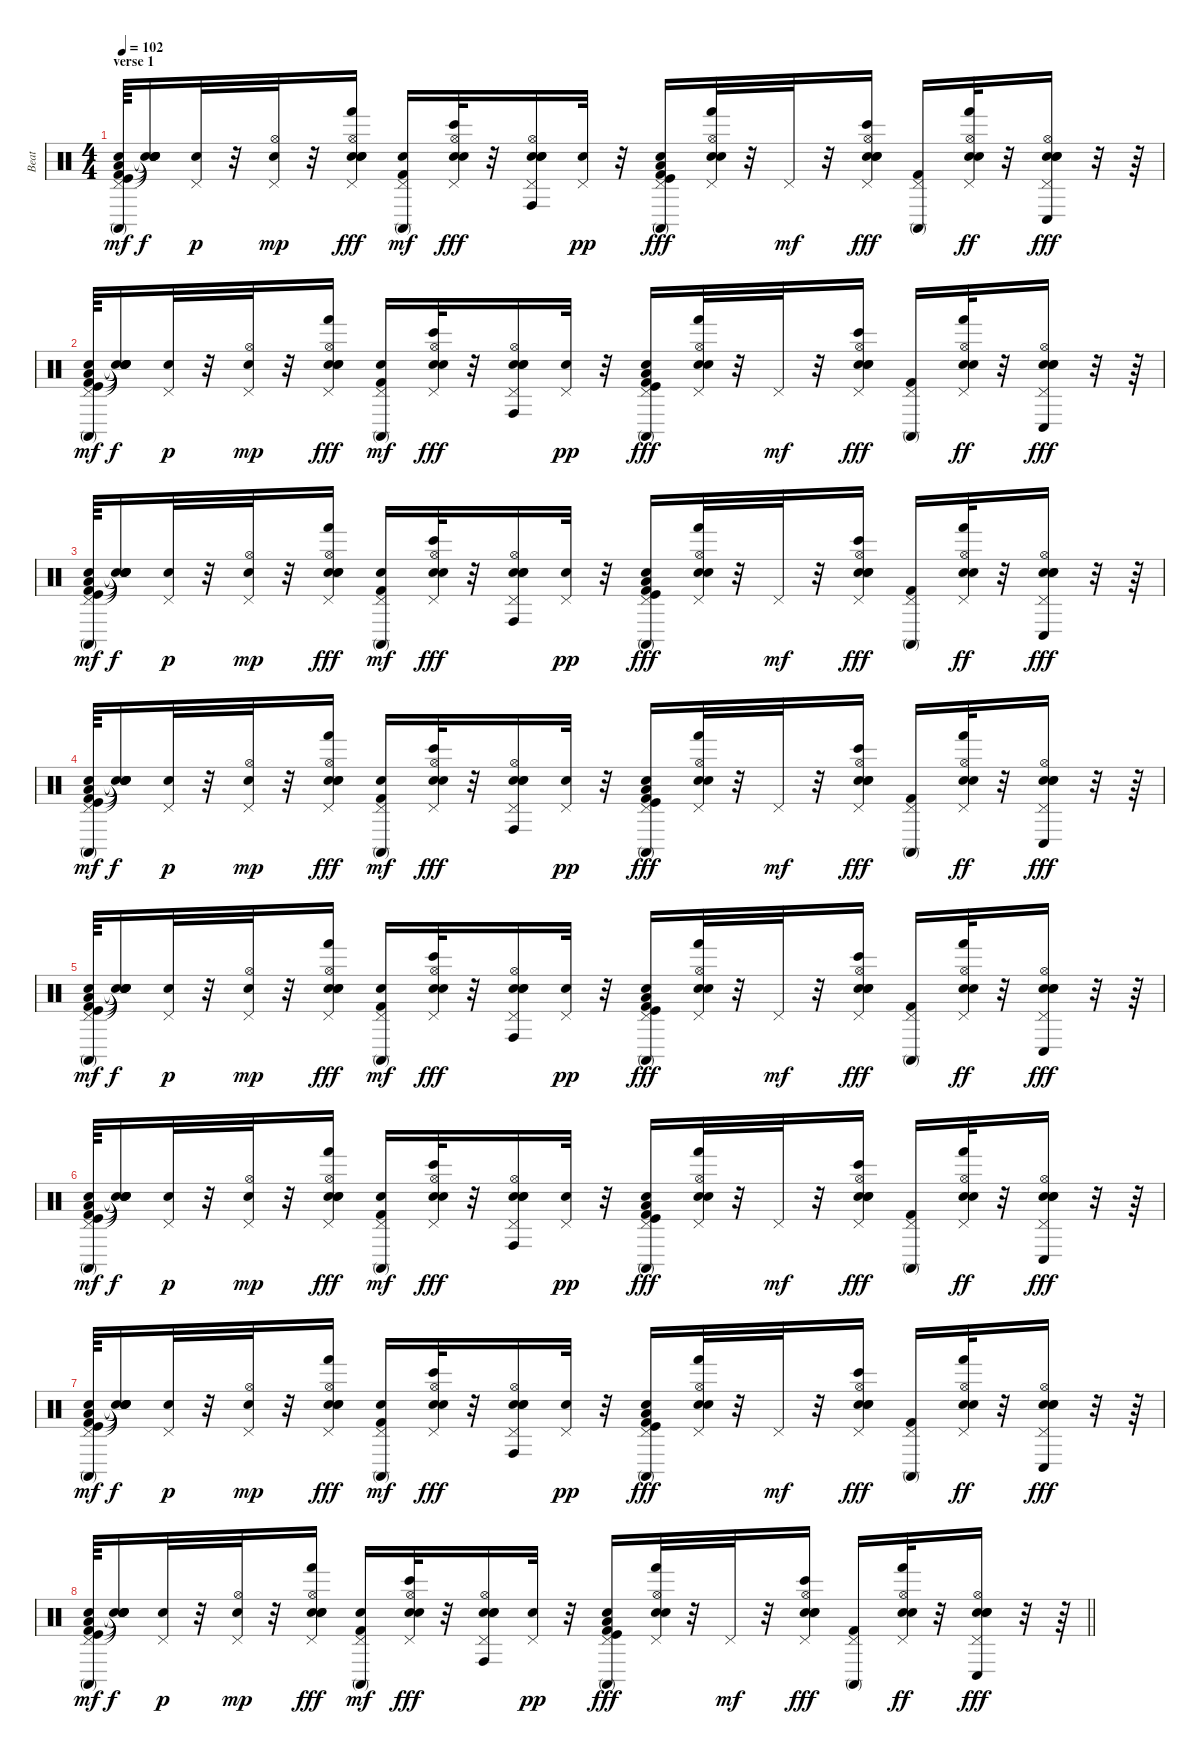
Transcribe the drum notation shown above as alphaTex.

\track ("Beat" "Beat") {instrument percussion}
\staff {score}
\articulation defaults
\ts (4 4)
\section ("" "verse 1")
\tempo 102
\clef neutral
\ks c
("Low Tom (hit)" "Kick (hit)" "Kick (hit) 2" "Pedal Hi-Hat (hit)" "Hand Clap (hit)" "Conga high (mute)").64{dy mf} ("Snare (hit)"{t} "Snare (hit)"{t} "Snare (hit)"{t} "Snare (hit)"{t} "Snare (hit)"{t}).16{dy f} ("Pedal Hi-Hat (hit)" "Hand Clap (hit)").32{dy p} r.32 ("Pedal Hi-Hat (hit)" "Hi-Hat (open)" "Metronome (bell)").32{dy mp} r.32 ("Electric Snare (hit)" "Pedal Hi-Hat (hit)" "Hand Clap (hit)" "Hi-Hat (open)" "Metronome (bell)" "Hand (hit)").16{dy fff} ("Kick (hit) 2" "Pedal Hi-Hat (hit)" "Hand Clap (hit)" "Conga high (mute)").16{dy mf} ("Pedal Hi-Hat (hit)" "Hand Clap (hit)" "Hi-Hat (open)" "Metronome (bell)" "Bongo High (hit)").32{dy fff} r.32 ("Electric Snare (hit)" "Pedal Hi-Hat (hit)" "Hand Clap (hit)" "Hi-Hat (open)" "Metronome (bell)" "Conga high (hit)").16 ("Pedal Hi-Hat (hit)" "Hand Clap (hit)").32{dy pp} r.32 ("Low Tom (hit)" "Kick (hit)" "Kick (hit) 2" "Pedal Hi-Hat (hit)" "Hand Clap (hit)" "Conga high (mute)").16{dy fff} ("Pedal Hi-Hat (hit)" "Hand Clap (hit)" "Hi-Hat (open)" "Metronome (bell)" "Hand (hit)").32 r.32 "Pedal Hi-Hat (hit)".32{dy mf} r.32 ("Electric Snare (hit)" "Pedal Hi-Hat (hit)" "Hand Clap (hit)" "Hi-Hat (open)" "Metronome (bell)" "Bongo High (hit)").16{dy fff} ("Kick (hit) 2" "Pedal Hi-Hat (hit)" "Conga high (mute)").16 ("Pedal Hi-Hat (hit)" "Hand Clap (hit)" "Hi-Hat (open)" "Metronome (bell)" "Hand (hit)").32{dy ff} r.32 ("Electric Snare (hit)" "Pedal Hi-Hat (hit)" "Hand Clap (hit)" "Hi-Hat (open)" "Metronome (bell)" "Conga low (hit)").16{dy fff} r.32 r.64 |
("Low Tom (hit)" "Kick (hit)" "Kick (hit) 2" "Pedal Hi-Hat (hit)" "Hand Clap (hit)" "Conga high (mute)").64{dy mf} ("Snare (hit)"{t} "Snare (hit)"{t} "Snare (hit)"{t} "Snare (hit)"{t} "Snare (hit)"{t}).16{dy f} ("Pedal Hi-Hat (hit)" "Hand Clap (hit)").32{dy p} r.32 ("Pedal Hi-Hat (hit)" "Hi-Hat (open)" "Metronome (bell)").32{dy mp} r.32 ("Electric Snare (hit)" "Pedal Hi-Hat (hit)" "Hand Clap (hit)" "Hi-Hat (open)" "Metronome (bell)" "Hand (hit)").16{dy fff} ("Kick (hit) 2" "Pedal Hi-Hat (hit)" "Hand Clap (hit)" "Conga high (mute)").16{dy mf} ("Pedal Hi-Hat (hit)" "Hand Clap (hit)" "Hi-Hat (open)" "Metronome (bell)" "Bongo High (hit)").32{dy fff} r.32 ("Electric Snare (hit)" "Pedal Hi-Hat (hit)" "Hand Clap (hit)" "Hi-Hat (open)" "Metronome (bell)" "Conga high (hit)").16 ("Pedal Hi-Hat (hit)" "Hand Clap (hit)").32{dy pp} r.32 ("Low Tom (hit)" "Kick (hit)" "Kick (hit) 2" "Pedal Hi-Hat (hit)" "Hand Clap (hit)" "Conga high (mute)").16{dy fff} ("Pedal Hi-Hat (hit)" "Hand Clap (hit)" "Hi-Hat (open)" "Metronome (bell)" "Hand (hit)").32 r.32 "Pedal Hi-Hat (hit)".32{dy mf} r.32 ("Electric Snare (hit)" "Pedal Hi-Hat (hit)" "Hand Clap (hit)" "Hi-Hat (open)" "Metronome (bell)" "Bongo High (hit)").16{dy fff} ("Kick (hit) 2" "Pedal Hi-Hat (hit)" "Conga high (mute)").16 ("Pedal Hi-Hat (hit)" "Hand Clap (hit)" "Hi-Hat (open)" "Metronome (bell)" "Hand (hit)").32{dy ff} r.32 ("Electric Snare (hit)" "Pedal Hi-Hat (hit)" "Hand Clap (hit)" "Hi-Hat (open)" "Metronome (bell)" "Conga low (hit)").16{dy fff} r.32 r.64 |
("Low Tom (hit)" "Kick (hit)" "Kick (hit) 2" "Pedal Hi-Hat (hit)" "Hand Clap (hit)" "Conga high (mute)").64{dy mf} ("Snare (hit)"{t} "Snare (hit)"{t} "Snare (hit)"{t} "Snare (hit)"{t} "Snare (hit)"{t}).16{dy f} ("Pedal Hi-Hat (hit)" "Hand Clap (hit)").32{dy p} r.32 ("Pedal Hi-Hat (hit)" "Hi-Hat (open)" "Metronome (bell)").32{dy mp} r.32 ("Electric Snare (hit)" "Pedal Hi-Hat (hit)" "Hand Clap (hit)" "Hi-Hat (open)" "Metronome (bell)" "Hand (hit)").16{dy fff} ("Kick (hit) 2" "Pedal Hi-Hat (hit)" "Hand Clap (hit)" "Conga high (mute)").16{dy mf} ("Pedal Hi-Hat (hit)" "Hand Clap (hit)" "Hi-Hat (open)" "Metronome (bell)" "Bongo High (hit)").32{dy fff} r.32 ("Electric Snare (hit)" "Pedal Hi-Hat (hit)" "Hand Clap (hit)" "Hi-Hat (open)" "Metronome (bell)" "Conga high (hit)").16 ("Pedal Hi-Hat (hit)" "Hand Clap (hit)").32{dy pp} r.32 ("Low Tom (hit)" "Kick (hit)" "Kick (hit) 2" "Pedal Hi-Hat (hit)" "Hand Clap (hit)" "Conga high (mute)").16{dy fff} ("Pedal Hi-Hat (hit)" "Hand Clap (hit)" "Hi-Hat (open)" "Metronome (bell)" "Hand (hit)").32 r.32 "Pedal Hi-Hat (hit)".32{dy mf} r.32 ("Electric Snare (hit)" "Pedal Hi-Hat (hit)" "Hand Clap (hit)" "Hi-Hat (open)" "Metronome (bell)" "Bongo High (hit)").16{dy fff} ("Kick (hit) 2" "Pedal Hi-Hat (hit)" "Conga high (mute)").16 ("Pedal Hi-Hat (hit)" "Hand Clap (hit)" "Hi-Hat (open)" "Metronome (bell)" "Hand (hit)").32{dy ff} r.32 ("Electric Snare (hit)" "Pedal Hi-Hat (hit)" "Hand Clap (hit)" "Hi-Hat (open)" "Metronome (bell)" "Conga low (hit)").16{dy fff} r.32 r.64 |
("Low Tom (hit)" "Kick (hit)" "Kick (hit) 2" "Pedal Hi-Hat (hit)" "Hand Clap (hit)" "Conga high (mute)").64{dy mf} ("Snare (hit)"{t} "Snare (hit)"{t} "Snare (hit)"{t} "Snare (hit)"{t} "Snare (hit)"{t}).16{dy f} ("Pedal Hi-Hat (hit)" "Hand Clap (hit)").32{dy p} r.32 ("Pedal Hi-Hat (hit)" "Hi-Hat (open)" "Metronome (bell)").32{dy mp} r.32 ("Electric Snare (hit)" "Pedal Hi-Hat (hit)" "Hand Clap (hit)" "Hi-Hat (open)" "Metronome (bell)" "Hand (hit)").16{dy fff} ("Kick (hit) 2" "Pedal Hi-Hat (hit)" "Hand Clap (hit)" "Conga high (mute)").16{dy mf} ("Pedal Hi-Hat (hit)" "Hand Clap (hit)" "Hi-Hat (open)" "Metronome (bell)" "Bongo High (hit)").32{dy fff} r.32 ("Electric Snare (hit)" "Pedal Hi-Hat (hit)" "Hand Clap (hit)" "Hi-Hat (open)" "Metronome (bell)" "Conga high (hit)").16 ("Pedal Hi-Hat (hit)" "Hand Clap (hit)").32{dy pp} r.32 ("Low Tom (hit)" "Kick (hit)" "Kick (hit) 2" "Pedal Hi-Hat (hit)" "Hand Clap (hit)" "Conga high (mute)").16{dy fff} ("Pedal Hi-Hat (hit)" "Hand Clap (hit)" "Hi-Hat (open)" "Metronome (bell)" "Hand (hit)").32 r.32 "Pedal Hi-Hat (hit)".32{dy mf} r.32 ("Electric Snare (hit)" "Pedal Hi-Hat (hit)" "Hand Clap (hit)" "Hi-Hat (open)" "Metronome (bell)" "Bongo High (hit)").16{dy fff} ("Kick (hit) 2" "Pedal Hi-Hat (hit)" "Conga high (mute)").16 ("Pedal Hi-Hat (hit)" "Hand Clap (hit)" "Hi-Hat (open)" "Metronome (bell)" "Hand (hit)").32{dy ff} r.32 ("Electric Snare (hit)" "Pedal Hi-Hat (hit)" "Hand Clap (hit)" "Hi-Hat (open)" "Metronome (bell)" "Conga low (hit)").16{dy fff} r.32 r.64 |
("Low Tom (hit)" "Kick (hit)" "Kick (hit) 2" "Pedal Hi-Hat (hit)" "Hand Clap (hit)" "Conga high (mute)").64{dy mf} ("Snare (hit)"{t} "Snare (hit)"{t} "Snare (hit)"{t} "Snare (hit)"{t} "Snare (hit)"{t}).16{dy f} ("Pedal Hi-Hat (hit)" "Hand Clap (hit)").32{dy p} r.32 ("Pedal Hi-Hat (hit)" "Hi-Hat (open)" "Metronome (bell)").32{dy mp} r.32 ("Electric Snare (hit)" "Pedal Hi-Hat (hit)" "Hand Clap (hit)" "Hi-Hat (open)" "Metronome (bell)" "Hand (hit)").16{dy fff} ("Kick (hit) 2" "Pedal Hi-Hat (hit)" "Hand Clap (hit)" "Conga high (mute)").16{dy mf} ("Pedal Hi-Hat (hit)" "Hand Clap (hit)" "Hi-Hat (open)" "Metronome (bell)" "Bongo High (hit)").32{dy fff} r.32 ("Electric Snare (hit)" "Pedal Hi-Hat (hit)" "Hand Clap (hit)" "Hi-Hat (open)" "Metronome (bell)" "Conga high (hit)").16 ("Pedal Hi-Hat (hit)" "Hand Clap (hit)").32{dy pp} r.32 ("Low Tom (hit)" "Kick (hit)" "Kick (hit) 2" "Pedal Hi-Hat (hit)" "Hand Clap (hit)" "Conga high (mute)").16{dy fff} ("Pedal Hi-Hat (hit)" "Hand Clap (hit)" "Hi-Hat (open)" "Metronome (bell)" "Hand (hit)").32 r.32 "Pedal Hi-Hat (hit)".32{dy mf} r.32 ("Electric Snare (hit)" "Pedal Hi-Hat (hit)" "Hand Clap (hit)" "Hi-Hat (open)" "Metronome (bell)" "Bongo High (hit)").16{dy fff} ("Kick (hit) 2" "Pedal Hi-Hat (hit)" "Conga high (mute)").16 ("Pedal Hi-Hat (hit)" "Hand Clap (hit)" "Hi-Hat (open)" "Metronome (bell)" "Hand (hit)").32{dy ff} r.32 ("Electric Snare (hit)" "Pedal Hi-Hat (hit)" "Hand Clap (hit)" "Hi-Hat (open)" "Metronome (bell)" "Conga low (hit)").16{dy fff} r.32 r.64 |
("Low Tom (hit)" "Kick (hit)" "Kick (hit) 2" "Pedal Hi-Hat (hit)" "Hand Clap (hit)" "Conga high (mute)").64{dy mf} ("Snare (hit)"{t} "Snare (hit)"{t} "Snare (hit)"{t} "Snare (hit)"{t} "Snare (hit)"{t}).16{dy f} ("Pedal Hi-Hat (hit)" "Hand Clap (hit)").32{dy p} r.32 ("Pedal Hi-Hat (hit)" "Hi-Hat (open)" "Metronome (bell)").32{dy mp} r.32 ("Electric Snare (hit)" "Pedal Hi-Hat (hit)" "Hand Clap (hit)" "Hi-Hat (open)" "Metronome (bell)" "Hand (hit)").16{dy fff} ("Kick (hit) 2" "Pedal Hi-Hat (hit)" "Hand Clap (hit)" "Conga high (mute)").16{dy mf} ("Pedal Hi-Hat (hit)" "Hand Clap (hit)" "Hi-Hat (open)" "Metronome (bell)" "Bongo High (hit)").32{dy fff} r.32 ("Electric Snare (hit)" "Pedal Hi-Hat (hit)" "Hand Clap (hit)" "Hi-Hat (open)" "Metronome (bell)" "Conga high (hit)").16 ("Pedal Hi-Hat (hit)" "Hand Clap (hit)").32{dy pp} r.32 ("Low Tom (hit)" "Kick (hit)" "Kick (hit) 2" "Pedal Hi-Hat (hit)" "Hand Clap (hit)" "Conga high (mute)").16{dy fff} ("Pedal Hi-Hat (hit)" "Hand Clap (hit)" "Hi-Hat (open)" "Metronome (bell)" "Hand (hit)").32 r.32 "Pedal Hi-Hat (hit)".32{dy mf} r.32 ("Electric Snare (hit)" "Pedal Hi-Hat (hit)" "Hand Clap (hit)" "Hi-Hat (open)" "Metronome (bell)" "Bongo High (hit)").16{dy fff} ("Kick (hit) 2" "Pedal Hi-Hat (hit)" "Conga high (mute)").16 ("Pedal Hi-Hat (hit)" "Hand Clap (hit)" "Hi-Hat (open)" "Metronome (bell)" "Hand (hit)").32{dy ff} r.32 ("Electric Snare (hit)" "Pedal Hi-Hat (hit)" "Hand Clap (hit)" "Hi-Hat (open)" "Metronome (bell)" "Conga low (hit)").16{dy fff} r.32 r.64 |
("Low Tom (hit)" "Kick (hit)" "Kick (hit) 2" "Pedal Hi-Hat (hit)" "Hand Clap (hit)" "Conga high (mute)").64{dy mf} ("Snare (hit)"{t} "Snare (hit)"{t} "Snare (hit)"{t} "Snare (hit)"{t} "Snare (hit)"{t}).16{dy f} ("Pedal Hi-Hat (hit)" "Hand Clap (hit)").32{dy p} r.32 ("Pedal Hi-Hat (hit)" "Hi-Hat (open)" "Metronome (bell)").32{dy mp} r.32 ("Electric Snare (hit)" "Pedal Hi-Hat (hit)" "Hand Clap (hit)" "Hi-Hat (open)" "Metronome (bell)" "Hand (hit)").16{dy fff} ("Kick (hit) 2" "Pedal Hi-Hat (hit)" "Hand Clap (hit)" "Conga high (mute)").16{dy mf} ("Pedal Hi-Hat (hit)" "Hand Clap (hit)" "Hi-Hat (open)" "Metronome (bell)" "Bongo High (hit)").32{dy fff} r.32 ("Electric Snare (hit)" "Pedal Hi-Hat (hit)" "Hand Clap (hit)" "Hi-Hat (open)" "Metronome (bell)" "Conga high (hit)").16 ("Pedal Hi-Hat (hit)" "Hand Clap (hit)").32{dy pp} r.32 ("Low Tom (hit)" "Kick (hit)" "Kick (hit) 2" "Pedal Hi-Hat (hit)" "Hand Clap (hit)" "Conga high (mute)").16{dy fff} ("Pedal Hi-Hat (hit)" "Hand Clap (hit)" "Hi-Hat (open)" "Metronome (bell)" "Hand (hit)").32 r.32 "Pedal Hi-Hat (hit)".32{dy mf} r.32 ("Electric Snare (hit)" "Pedal Hi-Hat (hit)" "Hand Clap (hit)" "Hi-Hat (open)" "Metronome (bell)" "Bongo High (hit)").16{dy fff} ("Kick (hit) 2" "Pedal Hi-Hat (hit)" "Conga high (mute)").16 ("Pedal Hi-Hat (hit)" "Hand Clap (hit)" "Hi-Hat (open)" "Metronome (bell)" "Hand (hit)").32{dy ff} r.32 ("Electric Snare (hit)" "Pedal Hi-Hat (hit)" "Hand Clap (hit)" "Hi-Hat (open)" "Metronome (bell)" "Conga low (hit)").16{dy fff} r.32 r.64 |
\barLineRight lightlight
("Low Tom (hit)" "Kick (hit)" "Kick (hit) 2" "Pedal Hi-Hat (hit)" "Hand Clap (hit)" "Conga high (mute)").64{dy mf} ("Snare (hit)"{t} "Snare (hit)"{t} "Snare (hit)"{t} "Snare (hit)"{t} "Snare (hit)"{t}).16{dy f} ("Pedal Hi-Hat (hit)" "Hand Clap (hit)").32{dy p} r.32 ("Pedal Hi-Hat (hit)" "Hi-Hat (open)" "Metronome (bell)").32{dy mp} r.32 ("Electric Snare (hit)" "Pedal Hi-Hat (hit)" "Hand Clap (hit)" "Hi-Hat (open)" "Metronome (bell)" "Hand (hit)").16{dy fff} ("Kick (hit) 2" "Pedal Hi-Hat (hit)" "Hand Clap (hit)" "Conga high (mute)").16{dy mf} ("Pedal Hi-Hat (hit)" "Hand Clap (hit)" "Hi-Hat (open)" "Metronome (bell)" "Bongo High (hit)").32{dy fff} r.32 ("Electric Snare (hit)" "Pedal Hi-Hat (hit)" "Hand Clap (hit)" "Hi-Hat (open)" "Metronome (bell)" "Conga high (hit)").16 ("Pedal Hi-Hat (hit)" "Hand Clap (hit)").32{dy pp} r.32 ("Low Tom (hit)" "Kick (hit)" "Kick (hit) 2" "Pedal Hi-Hat (hit)" "Hand Clap (hit)" "Conga high (mute)").16{dy fff} ("Pedal Hi-Hat (hit)" "Hand Clap (hit)" "Hi-Hat (open)" "Metronome (bell)" "Hand (hit)").32 r.32 "Pedal Hi-Hat (hit)".32{dy mf} r.32 ("Electric Snare (hit)" "Pedal Hi-Hat (hit)" "Hand Clap (hit)" "Hi-Hat (open)" "Metronome (bell)" "Bongo High (hit)").16{dy fff} ("Kick (hit) 2" "Pedal Hi-Hat (hit)" "Conga high (mute)").16 ("Pedal Hi-Hat (hit)" "Hand Clap (hit)" "Hi-Hat (open)" "Metronome (bell)" "Hand (hit)").32{dy ff} r.32 ("Electric Snare (hit)" "Pedal Hi-Hat (hit)" "Hand Clap (hit)" "Hi-Hat (open)" "Metronome (bell)" "Conga low (hit)").16{dy fff} r.32 r.64
